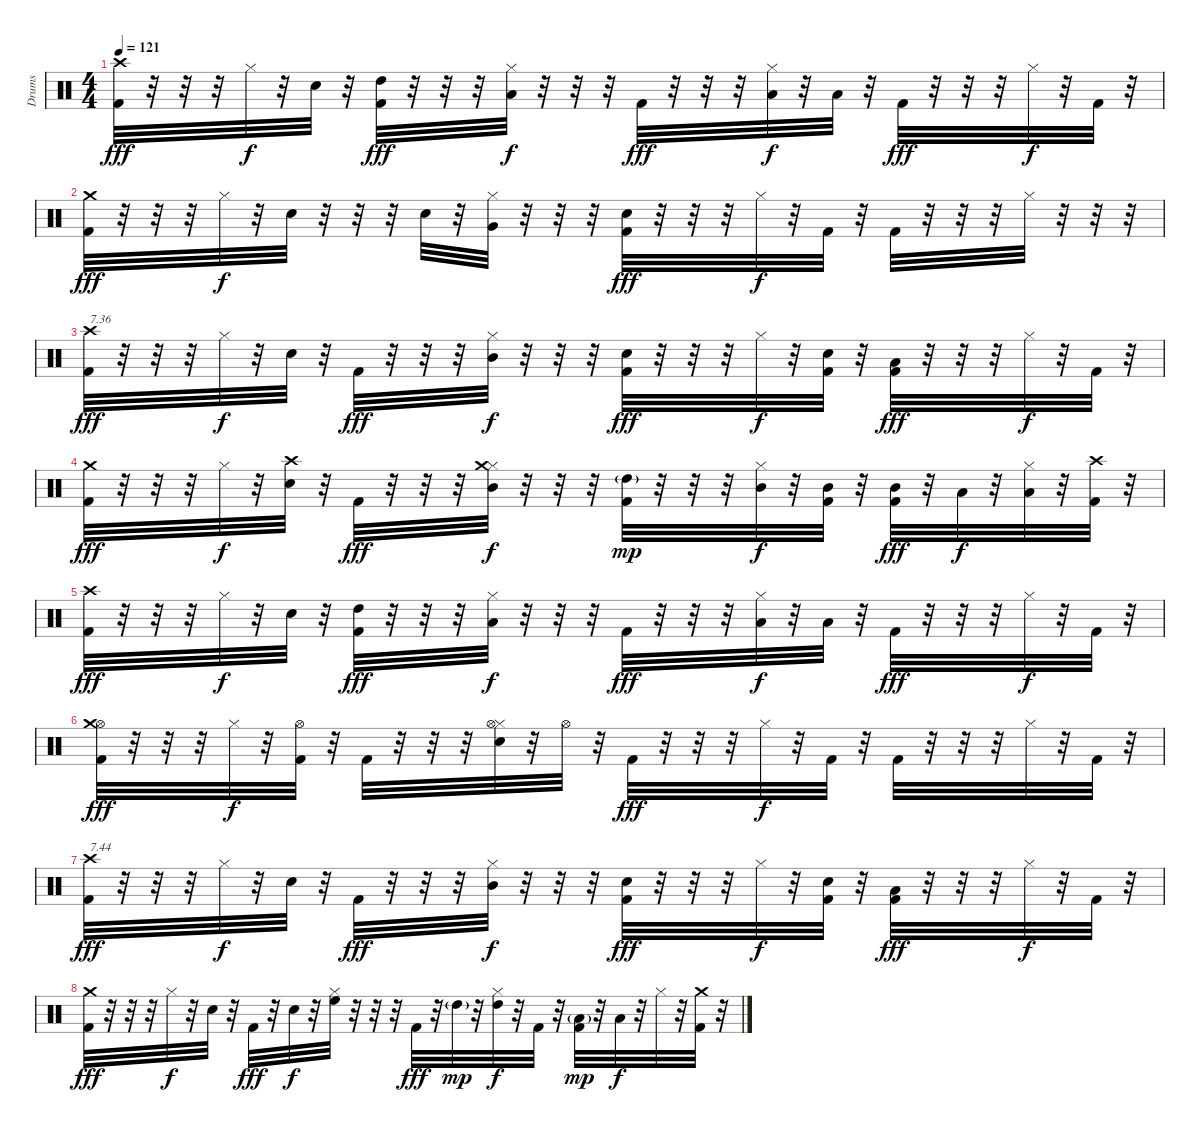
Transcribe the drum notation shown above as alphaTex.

\track ("Drums" "Drums") {instrument percussion}
\staff {score}
\articulation defaults
\ts (4 4)
\tempo 121
\clef neutral
\ks c
("Kick (hit) 2" "Crash high (hit)").32{dy fff} r.32 r.32 r.32 "Hi-Hat (closed)".32{dy f} r.32 "Snare (hit) 2".32 r.32 ("Kick (hit) 2" "High Tom (hit)").32{dy fff} r.32 r.32 r.32 ("Hi-Hat (closed)" "Low Tom (hit)").32{dy f} r.32 r.32 r.32 "Kick (hit) 2".32{dy fff} r.32 r.32 r.32 ("Hi-Hat (closed)" "Low Tom (hit)").32{dy f} r.32 "Low Tom (hit)".32 r.32 "Kick (hit) 2".32{dy fff} r.32 r.32 r.32 "Hi-Hat (closed)".32{dy f} r.32 "Kick (hit) 2".32 r.32 |
("Kick (hit) 2" "Crash medium (hit)").32{dy fff} r.32 r.32 r.32 "Hi-Hat (closed)".32{dy f} r.32 "Snare (hit) 2".32 r.32 r.32 r.32 "Snare (hit) 2".32 r.32 ("Hi-Hat (closed)" "Very Low Tom (hit)").32 r.32 r.32 r.32 ("Kick (hit) 2" "Snare (hit) 2").32{dy fff} r.32 r.32 r.32 "Hi-Hat (closed)".32{dy f} r.32 "Kick (hit) 2".32 r.32 "Kick (hit) 2".32 r.32 r.32 r.32 "Hi-Hat (closed)".32 r.32 r.32 r.32 |
("Kick (hit) 2" "Crash high (hit)").32{txt "7.36" dy fff} r.32 r.32 r.32 "Hi-Hat (closed)".32{dy f} r.32 "Snare (hit) 2".32 r.32 "Kick (hit) 2".32{dy fff} r.32 r.32 r.32 ("Hi-Hat (closed)" "Mid Tom (hit)").32{dy f} r.32 r.32 r.32 ("Kick (hit) 2" "Snare (hit) 2").32{dy fff} r.32 r.32 r.32 "Hi-Hat (closed)".32{dy f} r.32 ("Kick (hit) 2" "Snare (hit) 2").32 r.32 ("Kick (hit) 2" "Low Tom (hit)").32{dy fff} r.32 r.32 r.32 "Hi-Hat (closed)".32{dy f} r.32 "Kick (hit) 2".32 r.32 |
("Kick (hit) 2" "Crash medium (hit)").32{dy fff} r.32 r.32 r.32 "Hi-Hat (closed)".32{dy f} r.32 ("Crash high (hit)" "Snare (hit) 2").32 r.32 "Kick (hit) 2".32{dy fff} r.32 r.32 r.32 ("Hi-Hat (closed)" "Mid Tom (hit)" "Crash medium (hit)").32{dy f} r.32 r.32 r.32 ("Kick (hit) 2" "High Tom (hit)"{g}).32{dy mp} r.32 r.32 r.32 ("Hi-Hat (closed)" "Mid Tom (hit)").32{dy f} r.32 ("Kick (hit) 2" "Mid Tom (hit)").32 r.32 ("Kick (hit) 2" "Mid Tom (hit)").32{dy fff} r.32 "Low Tom (hit)".32{dy f} r.32 ("Hi-Hat (closed)" "Low Tom (hit)").32 r.32 ("Crash high (hit)" "Kick (hit) 2").32 r.32 |
("Kick (hit) 2" "Crash high (hit)").32{dy fff} r.32 r.32 r.32 "Hi-Hat (closed)".32{dy f} r.32 "Snare (hit) 2".32 r.32 ("Kick (hit) 2" "High Tom (hit)").32{dy fff} r.32 r.32 r.32 ("Hi-Hat (closed)" "Low Tom (hit)").32{dy f} r.32 r.32 r.32 "Kick (hit) 2".32{dy fff} r.32 r.32 r.32 ("Hi-Hat (closed)" "Low Tom (hit)").32{dy f} r.32 "Low Tom (hit)".32 r.32 "Kick (hit) 2".32{dy fff} r.32 r.32 r.32 "Hi-Hat (closed)".32{dy f} r.32 "Kick (hit) 2".32 r.32 |
("Hi-Hat (open)" "Kick (hit) 2" "Crash medium (hit)").32{dy fff} r.32 r.32 r.32 "Hi-Hat (closed)".32{dy f} r.32 ("Hi-Hat (open)" "Kick (hit) 2").32 r.32 "Kick (hit) 2".32 r.32 r.32 r.32 ("Hi-Hat (closed)" "Hi-Hat (open)" "Snare (hit) 2").32 r.32 "Hi-Hat (open)".32 r.32 "Kick (hit) 2".32{dy fff} r.32 r.32 r.32 "Hi-Hat (closed)".32{dy f} r.32 "Kick (hit) 2".32 r.32 "Kick (hit) 2".32 r.32 r.32 r.32 "Hi-Hat (closed)".32 r.32 "Kick (hit) 2".32 r.32 |
("Kick (hit) 2" "Crash high (hit)").32{txt "7.44" dy fff} r.32 r.32 r.32 "Hi-Hat (closed)".32{dy f} r.32 "Snare (hit) 2".32 r.32 "Kick (hit) 2".32{dy fff} r.32 r.32 r.32 ("Hi-Hat (closed)" "Mid Tom (hit)").32{dy f} r.32 r.32 r.32 ("Kick (hit) 2" "Snare (hit) 2").32{dy fff} r.32 r.32 r.32 "Hi-Hat (closed)".32{dy f} r.32 ("Kick (hit) 2" "Snare (hit) 2").32 r.32 ("Kick (hit) 2" "Low Tom (hit)").32{dy fff} r.32 r.32 r.32 "Hi-Hat (closed)".32{dy f} r.32 "Kick (hit) 2".32 r.32 |
("Kick (hit) 2" "Crash medium (hit)").32{dy fff} r.32 r.32 r.32 "Hi-Hat (closed)".32{dy f} r.32 "Snare (hit) 2".32 r.32 "Kick (hit) 2".32{dy fff} r.32 "Snare (hit) 2".32{dy f} r.32 ("Hi-Hat (closed)" "High Floor Tom (hit)").32 r.32 r.32 r.32 "Kick (hit) 2".32{dy fff} r.32 "High Tom (hit)"{g}.32{dy mp} r.32 ("Hi-Hat (closed)" "High Tom (hit)").32{dy f} r.32 "Kick (hit) 2".32 r.32 ("Kick (hit) 2" "Low Tom (hit)"{g}).32{dy mp} r.32 "Low Tom (hit)".32{dy f} r.32 "Hi-Hat (closed)".32 r.32 ("Crash medium (hit)" "Kick (hit) 2").32 r.32
